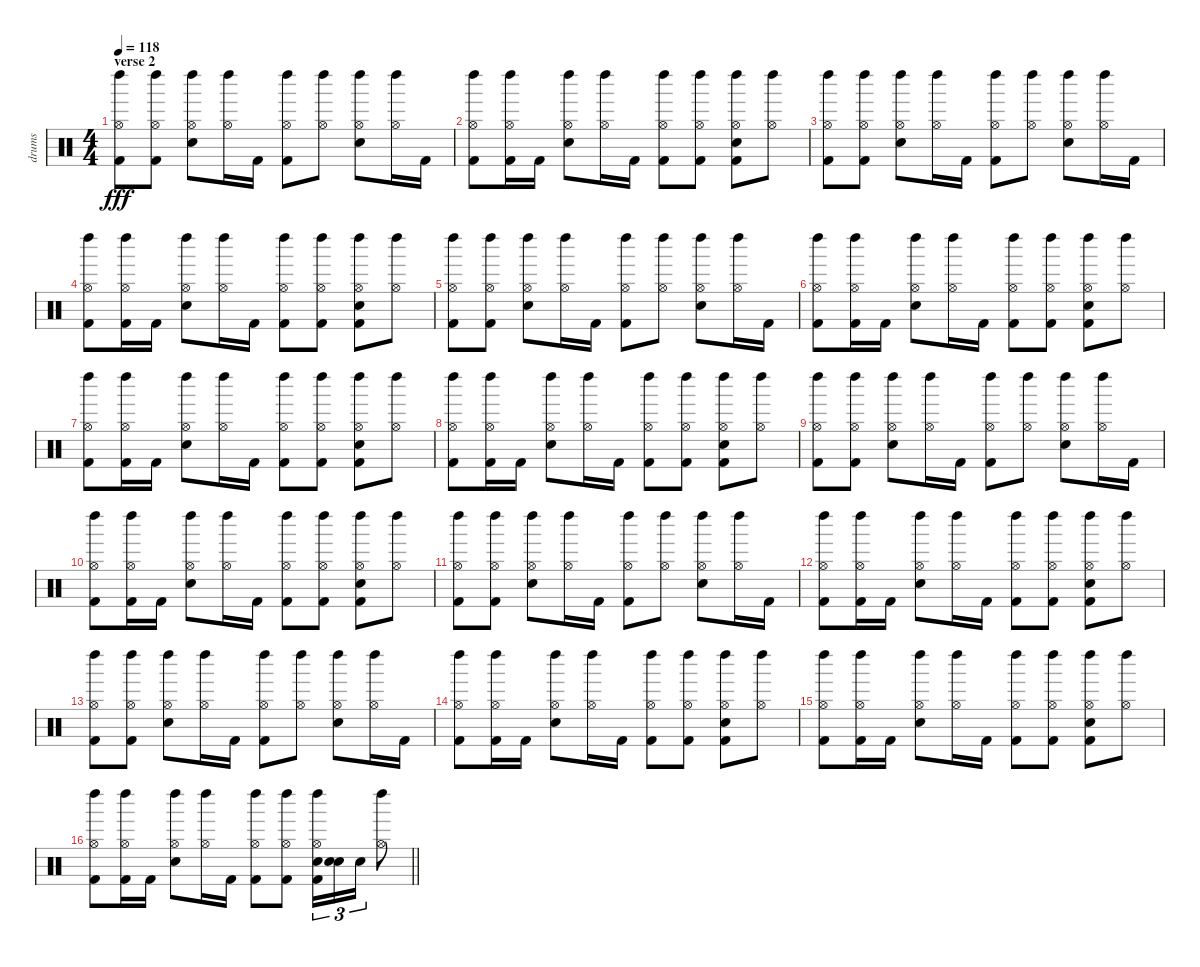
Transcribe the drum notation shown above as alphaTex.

\track ("drums" "drums") {instrument percussion}
\staff {score}
\articulation defaults
\ts (4 4)
\section ("" "verse 2")
\tempo 118
\clef neutral
\ks c
("Hi-Hat (open)" "Left Maraca (hit)" "Kick (hit) 2").8{dy fff} ("Kick (hit) 2" "Left Maraca (hit)" "Hi-Hat (open)").8 ("Hi-Hat (open)" "Left Maraca (hit)" "Electric Snare (hit)").8 ("Hi-Hat (open)" "Left Maraca (hit)").16 "Kick (hit) 2".16 ("Hi-Hat (open)" "Kick (hit) 2" "Left Maraca (hit)").8 ("Hi-Hat (open)" "Left Maraca (hit)").8 ("Hi-Hat (open)" "Left Maraca (hit)" "Electric Snare (hit)").8 ("Left Maraca (hit)" "Hi-Hat (open)").16 "Kick (hit) 2".16 |
("Left Maraca (hit)" "Hi-Hat (open)" "Kick (hit) 2").8 ("Hi-Hat (open)" "Kick (hit) 2" "Left Maraca (hit)").16 "Kick (hit) 2".16 ("Electric Snare (hit)" "Hi-Hat (open)" "Left Maraca (hit)").8 ("Hi-Hat (open)" "Left Maraca (hit)").16 "Kick (hit) 2".16 ("Kick (hit) 2" "Hi-Hat (open)" "Left Maraca (hit)").8 ("Left Maraca (hit)" "Kick (hit) 2" "Hi-Hat (open)").8 ("Kick (hit) 2" "Hi-Hat (open)" "Electric Snare (hit)" "Left Maraca (hit)").8 ("Hi-Hat (open)" "Left Maraca (hit)").8 |
("Hi-Hat (open)" "Left Maraca (hit)" "Kick (hit) 2").8 ("Kick (hit) 2" "Left Maraca (hit)" "Hi-Hat (open)").8 ("Hi-Hat (open)" "Left Maraca (hit)" "Electric Snare (hit)").8 ("Hi-Hat (open)" "Left Maraca (hit)").16 "Kick (hit) 2".16 ("Hi-Hat (open)" "Kick (hit) 2" "Left Maraca (hit)").8 ("Hi-Hat (open)" "Left Maraca (hit)").8 ("Hi-Hat (open)" "Left Maraca (hit)" "Electric Snare (hit)").8 ("Left Maraca (hit)" "Hi-Hat (open)").16 "Kick (hit) 2".16 |
("Left Maraca (hit)" "Hi-Hat (open)" "Kick (hit) 2").8 ("Hi-Hat (open)" "Kick (hit) 2" "Left Maraca (hit)").16 "Kick (hit) 2".16 ("Electric Snare (hit)" "Hi-Hat (open)" "Left Maraca (hit)").8 ("Hi-Hat (open)" "Left Maraca (hit)").16 "Kick (hit) 2".16 ("Kick (hit) 2" "Hi-Hat (open)" "Left Maraca (hit)").8 ("Left Maraca (hit)" "Kick (hit) 2" "Hi-Hat (open)").8 ("Kick (hit) 2" "Hi-Hat (open)" "Electric Snare (hit)" "Left Maraca (hit)").8 ("Hi-Hat (open)" "Left Maraca (hit)").8 |
("Hi-Hat (open)" "Left Maraca (hit)" "Kick (hit) 2").8 ("Kick (hit) 2" "Left Maraca (hit)" "Hi-Hat (open)").8 ("Hi-Hat (open)" "Left Maraca (hit)" "Electric Snare (hit)").8 ("Hi-Hat (open)" "Left Maraca (hit)").16 "Kick (hit) 2".16 ("Hi-Hat (open)" "Kick (hit) 2" "Left Maraca (hit)").8 ("Hi-Hat (open)" "Left Maraca (hit)").8 ("Hi-Hat (open)" "Left Maraca (hit)" "Electric Snare (hit)").8 ("Left Maraca (hit)" "Hi-Hat (open)").16 "Kick (hit) 2".16 |
("Left Maraca (hit)" "Hi-Hat (open)" "Kick (hit) 2").8 ("Hi-Hat (open)" "Kick (hit) 2" "Left Maraca (hit)").16 "Kick (hit) 2".16 ("Electric Snare (hit)" "Hi-Hat (open)" "Left Maraca (hit)").8 ("Hi-Hat (open)" "Left Maraca (hit)").16 "Kick (hit) 2".16 ("Kick (hit) 2" "Hi-Hat (open)" "Left Maraca (hit)").8 ("Left Maraca (hit)" "Kick (hit) 2" "Hi-Hat (open)").8 ("Kick (hit) 2" "Hi-Hat (open)" "Electric Snare (hit)" "Left Maraca (hit)").8 ("Hi-Hat (open)" "Left Maraca (hit)").8 |
("Left Maraca (hit)" "Hi-Hat (open)" "Kick (hit) 2").8 ("Hi-Hat (open)" "Kick (hit) 2" "Left Maraca (hit)").16 "Kick (hit) 2".16 ("Electric Snare (hit)" "Hi-Hat (open)" "Left Maraca (hit)").8 ("Hi-Hat (open)" "Left Maraca (hit)").16 "Kick (hit) 2".16 ("Kick (hit) 2" "Hi-Hat (open)" "Left Maraca (hit)").8 ("Left Maraca (hit)" "Kick (hit) 2" "Hi-Hat (open)").8 ("Kick (hit) 2" "Hi-Hat (open)" "Electric Snare (hit)" "Left Maraca (hit)").8 ("Hi-Hat (open)" "Left Maraca (hit)").8 |
("Left Maraca (hit)" "Hi-Hat (open)" "Kick (hit) 2").8 ("Left Maraca (hit)" "Kick (hit) 2" "Hi-Hat (open)").16 "Kick (hit) 2".16 ("Left Maraca (hit)" "Hi-Hat (open)" "Electric Snare (hit)").8 ("Left Maraca (hit)" "Hi-Hat (open)").16 "Kick (hit) 2".16 ("Kick (hit) 2" "Left Maraca (hit)" "Hi-Hat (open)").8 ("Left Maraca (hit)" "Hi-Hat (open)" "Kick (hit) 2").8 ("Left Maraca (hit)" "Hi-Hat (open)" "Electric Snare (hit)" "Kick (hit) 2").8 ("Left Maraca (hit)" "Hi-Hat (open)").8 |
("Hi-Hat (open)" "Left Maraca (hit)" "Kick (hit) 2").8 ("Kick (hit) 2" "Left Maraca (hit)" "Hi-Hat (open)").8 ("Hi-Hat (open)" "Left Maraca (hit)" "Electric Snare (hit)").8 ("Hi-Hat (open)" "Left Maraca (hit)").16 "Kick (hit) 2".16 ("Hi-Hat (open)" "Kick (hit) 2" "Left Maraca (hit)").8 ("Hi-Hat (open)" "Left Maraca (hit)").8 ("Hi-Hat (open)" "Left Maraca (hit)" "Electric Snare (hit)").8 ("Left Maraca (hit)" "Hi-Hat (open)").16 "Kick (hit) 2".16 |
("Left Maraca (hit)" "Hi-Hat (open)" "Kick (hit) 2").8 ("Hi-Hat (open)" "Kick (hit) 2" "Left Maraca (hit)").16 "Kick (hit) 2".16 ("Electric Snare (hit)" "Hi-Hat (open)" "Left Maraca (hit)").8 ("Hi-Hat (open)" "Left Maraca (hit)").16 "Kick (hit) 2".16 ("Kick (hit) 2" "Hi-Hat (open)" "Left Maraca (hit)").8 ("Left Maraca (hit)" "Kick (hit) 2" "Hi-Hat (open)").8 ("Kick (hit) 2" "Hi-Hat (open)" "Electric Snare (hit)" "Left Maraca (hit)").8 ("Hi-Hat (open)" "Left Maraca (hit)").8 |
("Hi-Hat (open)" "Left Maraca (hit)" "Kick (hit) 2").8 ("Kick (hit) 2" "Left Maraca (hit)" "Hi-Hat (open)").8 ("Hi-Hat (open)" "Left Maraca (hit)" "Electric Snare (hit)").8 ("Hi-Hat (open)" "Left Maraca (hit)").16 "Kick (hit) 2".16 ("Hi-Hat (open)" "Kick (hit) 2" "Left Maraca (hit)").8 ("Hi-Hat (open)" "Left Maraca (hit)").8 ("Hi-Hat (open)" "Left Maraca (hit)" "Electric Snare (hit)").8 ("Left Maraca (hit)" "Hi-Hat (open)").16 "Kick (hit) 2".16 |
("Left Maraca (hit)" "Hi-Hat (open)" "Kick (hit) 2").8 ("Hi-Hat (open)" "Kick (hit) 2" "Left Maraca (hit)").16 "Kick (hit) 2".16 ("Electric Snare (hit)" "Hi-Hat (open)" "Left Maraca (hit)").8 ("Hi-Hat (open)" "Left Maraca (hit)").16 "Kick (hit) 2".16 ("Kick (hit) 2" "Hi-Hat (open)" "Left Maraca (hit)").8 ("Left Maraca (hit)" "Kick (hit) 2" "Hi-Hat (open)").8 ("Kick (hit) 2" "Hi-Hat (open)" "Electric Snare (hit)" "Left Maraca (hit)").8 ("Hi-Hat (open)" "Left Maraca (hit)").8 |
("Hi-Hat (open)" "Left Maraca (hit)" "Kick (hit) 2").8 ("Kick (hit) 2" "Left Maraca (hit)" "Hi-Hat (open)").8 ("Hi-Hat (open)" "Left Maraca (hit)" "Electric Snare (hit)").8 ("Hi-Hat (open)" "Left Maraca (hit)").16 "Kick (hit) 2".16 ("Hi-Hat (open)" "Kick (hit) 2" "Left Maraca (hit)").8 ("Hi-Hat (open)" "Left Maraca (hit)").8 ("Hi-Hat (open)" "Left Maraca (hit)" "Electric Snare (hit)").8 ("Left Maraca (hit)" "Hi-Hat (open)").16 "Kick (hit) 2".16 |
("Left Maraca (hit)" "Hi-Hat (open)" "Kick (hit) 2").8 ("Hi-Hat (open)" "Kick (hit) 2" "Left Maraca (hit)").16 "Kick (hit) 2".16 ("Electric Snare (hit)" "Hi-Hat (open)" "Left Maraca (hit)").8 ("Hi-Hat (open)" "Left Maraca (hit)").16 "Kick (hit) 2".16 ("Kick (hit) 2" "Hi-Hat (open)" "Left Maraca (hit)").8 ("Left Maraca (hit)" "Kick (hit) 2" "Hi-Hat (open)").8 ("Kick (hit) 2" "Hi-Hat (open)" "Electric Snare (hit)" "Left Maraca (hit)").8 ("Hi-Hat (open)" "Left Maraca (hit)").8 |
("Left Maraca (hit)" "Hi-Hat (open)" "Kick (hit) 2").8 ("Hi-Hat (open)" "Kick (hit) 2" "Left Maraca (hit)").16 "Kick (hit) 2".16 ("Electric Snare (hit)" "Hi-Hat (open)" "Left Maraca (hit)").8 ("Hi-Hat (open)" "Left Maraca (hit)").16 "Kick (hit) 2".16 ("Kick (hit) 2" "Hi-Hat (open)" "Left Maraca (hit)").8 ("Left Maraca (hit)" "Kick (hit) 2" "Hi-Hat (open)").8 ("Kick (hit) 2" "Hi-Hat (open)" "Electric Snare (hit)" "Left Maraca (hit)").8 ("Hi-Hat (open)" "Left Maraca (hit)").8 |
\barLineRight lightlight
("Left Maraca (hit)" "Hi-Hat (open)" "Kick (hit) 2").8 ("Left Maraca (hit)" "Kick (hit) 2" "Hi-Hat (open)").16 "Kick (hit) 2".16 ("Left Maraca (hit)" "Hi-Hat (open)" "Electric Snare (hit)").8 ("Left Maraca (hit)" "Hi-Hat (open)").16 "Kick (hit) 2".16 ("Kick (hit) 2" "Left Maraca (hit)" "Hi-Hat (open)").8 ("Left Maraca (hit)" "Hi-Hat (open)" "Kick (hit) 2").8 ("Left Maraca (hit)" "Hi-Hat (open)" "Electric Snare (hit)" "Kick (hit) 2").16{tu (3 2)} ("Electric Snare (hit)" "Electric Snare (hit)").16{tu (3 2)} "Electric Snare (hit)".16{tu (3 2)} ("Left Maraca (hit)" "Hi-Hat (open)").8
